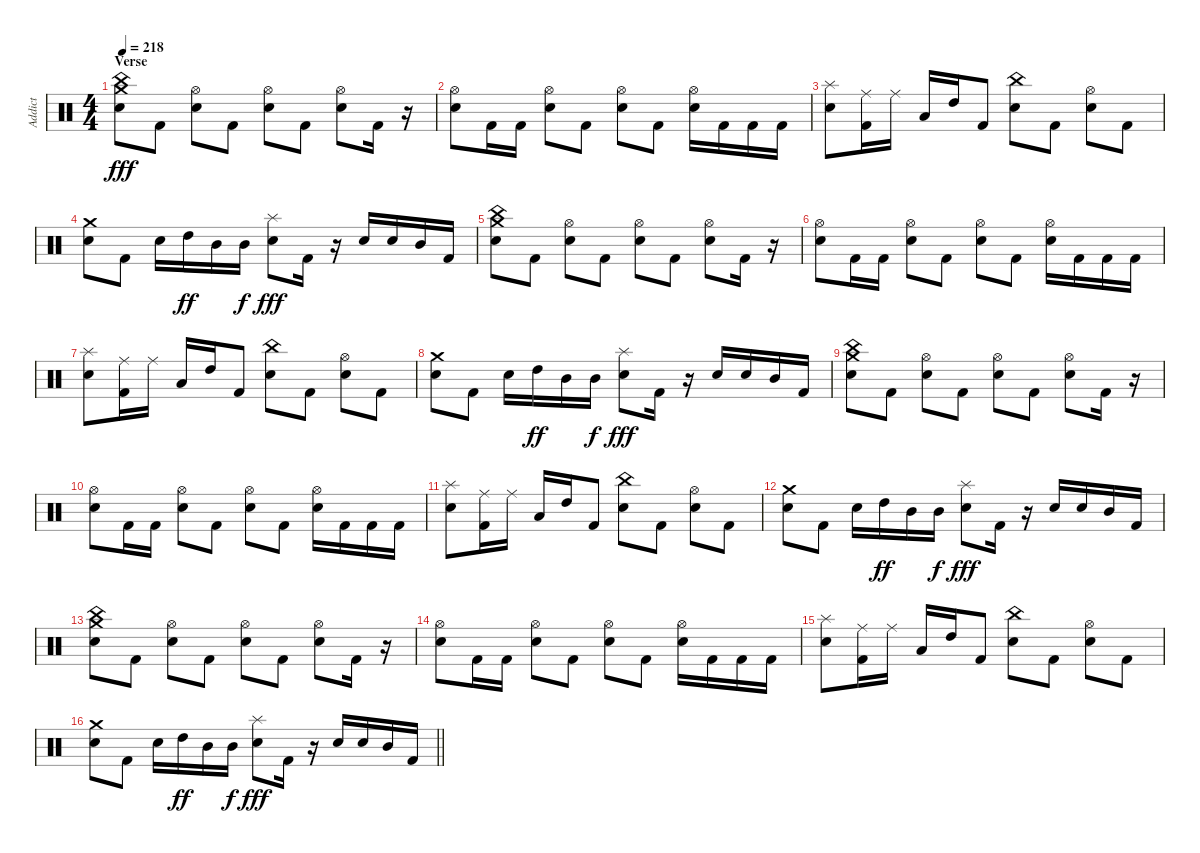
\track ("Addict" "Addict") {instrument percussion}
\staff {score}
\articulation defaults
\ts (4 4)
\section ("" "Verse")
\tempo 218
\clef neutral
\ks c
("Snare (hit) 2" "Crash medium (hit)" "China (hit)").8{dy fff} "Kick (hit) 2".8 ("Snare (hit) 2" "Hi-Hat (open)").8 "Kick (hit) 2".8 ("Snare (hit) 2" "Hi-Hat (open)").8 "Kick (hit) 2".8 ("Snare (hit) 2" "Hi-Hat (open)").8 "Kick (hit) 2".16 r.16 |
("Snare (hit) 2" "Hi-Hat (open)").8 "Kick (hit) 2".16 "Kick (hit) 2".16 ("Snare (hit) 2" "Hi-Hat (open)").8 "Kick (hit) 2".8 ("Snare (hit) 2" "Hi-Hat (open)").8 "Kick (hit) 2".8 ("Snare (hit) 2" "Hi-Hat (open)").16 "Kick (hit) 2".16 "Kick (hit) 2".16 "Kick (hit) 2".16 |
("Snare (hit) 2" "Splash (hit)").8 ("Kick (hit) 2" "Ride (middle)").16 "Ride (middle)".16 "Low Tom (hit)".16 "High Tom (hit)".16 "Kick (hit) 2".8 ("Snare (hit) 2" "China (hit)").8 "Kick (hit) 2".8 ("Snare (hit) 2" "Hi-Hat (open)").8 "Kick (hit) 2".8 |
("Snare (hit) 2" "Crash medium (hit)").8 "Kick (hit) 2".8 "Snare (hit) 2".16 "High Tom (hit)".16{dy ff} "Mid Tom (hit)".16 "Mid Tom (hit)".16{dy f} ("Snare (hit) 2" "Splash (hit)").8{dy fff} "Kick (hit) 2".16 r.16 "Snare (hit) 2".16 "Snare (hit) 2".16 "Mid Tom (hit)".16 "Kick (hit) 2".16 |
("Snare (hit) 2" "Crash medium (hit)" "China (hit)").8 "Kick (hit) 2".8 ("Snare (hit) 2" "Hi-Hat (open)").8 "Kick (hit) 2".8 ("Snare (hit) 2" "Hi-Hat (open)").8 "Kick (hit) 2".8 ("Snare (hit) 2" "Hi-Hat (open)").8 "Kick (hit) 2".16 r.16 |
("Snare (hit) 2" "Hi-Hat (open)").8 "Kick (hit) 2".16 "Kick (hit) 2".16 ("Snare (hit) 2" "Hi-Hat (open)").8 "Kick (hit) 2".8 ("Snare (hit) 2" "Hi-Hat (open)").8 "Kick (hit) 2".8 ("Snare (hit) 2" "Hi-Hat (open)").16 "Kick (hit) 2".16 "Kick (hit) 2".16 "Kick (hit) 2".16 |
("Snare (hit) 2" "Splash (hit)").8 ("Kick (hit) 2" "Ride (middle)").16 "Ride (middle)".16 "Low Tom (hit)".16 "High Tom (hit)".16 "Kick (hit) 2".8 ("Snare (hit) 2" "China (hit)").8 "Kick (hit) 2".8 ("Snare (hit) 2" "Hi-Hat (open)").8 "Kick (hit) 2".8 |
("Snare (hit) 2" "Crash medium (hit)").8 "Kick (hit) 2".8 "Snare (hit) 2".16 "High Tom (hit)".16{dy ff} "Mid Tom (hit)".16 "Mid Tom (hit)".16{dy f} ("Snare (hit) 2" "Splash (hit)").8{dy fff} "Kick (hit) 2".16 r.16 "Snare (hit) 2".16 "Snare (hit) 2".16 "Mid Tom (hit)".16 "Kick (hit) 2".16 |
("Snare (hit) 2" "Crash medium (hit)" "China (hit)").8 "Kick (hit) 2".8 ("Snare (hit) 2" "Hi-Hat (open)").8 "Kick (hit) 2".8 ("Snare (hit) 2" "Hi-Hat (open)").8 "Kick (hit) 2".8 ("Snare (hit) 2" "Hi-Hat (open)").8 "Kick (hit) 2".16 r.16 |
("Snare (hit) 2" "Hi-Hat (open)").8 "Kick (hit) 2".16 "Kick (hit) 2".16 ("Snare (hit) 2" "Hi-Hat (open)").8 "Kick (hit) 2".8 ("Snare (hit) 2" "Hi-Hat (open)").8 "Kick (hit) 2".8 ("Snare (hit) 2" "Hi-Hat (open)").16 "Kick (hit) 2".16 "Kick (hit) 2".16 "Kick (hit) 2".16 |
("Snare (hit) 2" "Splash (hit)").8 ("Kick (hit) 2" "Ride (middle)").16 "Ride (middle)".16 "Low Tom (hit)".16 "High Tom (hit)".16 "Kick (hit) 2".8 ("Snare (hit) 2" "China (hit)").8 "Kick (hit) 2".8 ("Snare (hit) 2" "Hi-Hat (open)").8 "Kick (hit) 2".8 |
("Snare (hit) 2" "Crash medium (hit)").8 "Kick (hit) 2".8 "Snare (hit) 2".16 "High Tom (hit)".16{dy ff} "Mid Tom (hit)".16 "Mid Tom (hit)".16{dy f} ("Snare (hit) 2" "Splash (hit)").8{dy fff} "Kick (hit) 2".16 r.16 "Snare (hit) 2".16 "Snare (hit) 2".16 "Mid Tom (hit)".16 "Kick (hit) 2".16 |
("Snare (hit) 2" "Crash medium (hit)" "China (hit)").8 "Kick (hit) 2".8 ("Snare (hit) 2" "Hi-Hat (open)").8 "Kick (hit) 2".8 ("Snare (hit) 2" "Hi-Hat (open)").8 "Kick (hit) 2".8 ("Snare (hit) 2" "Hi-Hat (open)").8 "Kick (hit) 2".16 r.16 |
("Snare (hit) 2" "Hi-Hat (open)").8 "Kick (hit) 2".16 "Kick (hit) 2".16 ("Snare (hit) 2" "Hi-Hat (open)").8 "Kick (hit) 2".8 ("Snare (hit) 2" "Hi-Hat (open)").8 "Kick (hit) 2".8 ("Snare (hit) 2" "Hi-Hat (open)").16 "Kick (hit) 2".16 "Kick (hit) 2".16 "Kick (hit) 2".16 |
("Snare (hit) 2" "Splash (hit)").8 ("Kick (hit) 2" "Ride (middle)").16 "Ride (middle)".16 "Low Tom (hit)".16 "High Tom (hit)".16 "Kick (hit) 2".8 ("Snare (hit) 2" "China (hit)").8 "Kick (hit) 2".8 ("Snare (hit) 2" "Hi-Hat (open)").8 "Kick (hit) 2".8 |
\barLineRight lightlight
("Snare (hit) 2" "Crash medium (hit)").8 "Kick (hit) 2".8 "Snare (hit) 2".16 "High Tom (hit)".16{dy ff} "Mid Tom (hit)".16 "Mid Tom (hit)".16{dy f} ("Snare (hit) 2" "Splash (hit)").8{dy fff} "Kick (hit) 2".16 r.16 "Snare (hit) 2".16 "Snare (hit) 2".16 "Mid Tom (hit)".16 "Kick (hit) 2".16
